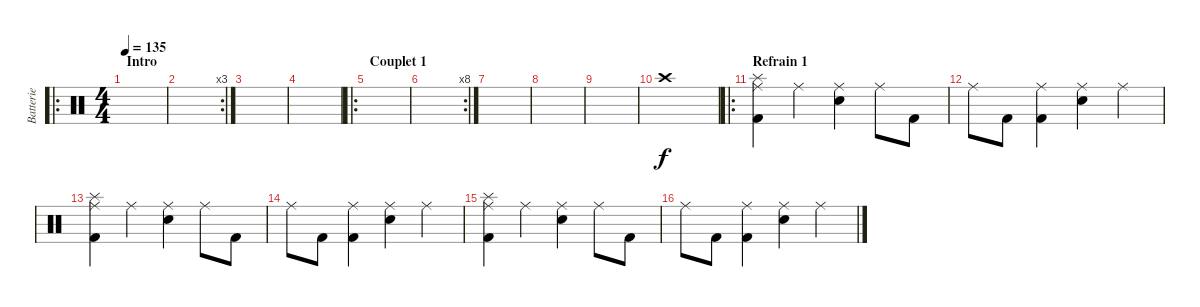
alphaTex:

\track ("Batterie" "Batterie") {instrument percussion}
\staff {score}
\articulation defaults
\ro
\ts (4 4)
\section ("" "Intro")
\tempo 135
\clef neutral
\ks c
|
\rc 3
|
|
|
\ro
\section ("" "Couplet 1")
|
\rc 8
|
|
|
|
"Crash high (hit)".1{volume 16} |
\ro
\section ("" "Refrain 1")
("Splash (hit)" "Ride (middle)" "Kick (hit) 2").4 "Ride (middle)".4 ("Ride (middle)" "Snare (hit) 2").4 "Ride (middle)".8 "Kick (hit) 2".8 |
"Ride (middle)".8 "Kick (hit) 2".8 ("Ride (middle)" "Kick (hit) 2").4 ("Ride (middle)" "Snare (hit) 2").4 "Ride (middle)".4 |
("Splash (hit)" "Ride (middle)" "Kick (hit) 2").4 "Ride (middle)".4 ("Ride (middle)" "Snare (hit) 2").4 "Ride (middle)".8 "Kick (hit) 2".8 |
"Ride (middle)".8 "Kick (hit) 2".8 ("Ride (middle)" "Kick (hit) 2").4 ("Ride (middle)" "Snare (hit) 2").4 "Ride (middle)".4 |
("Splash (hit)" "Ride (middle)" "Kick (hit) 2").4 "Ride (middle)".4 ("Ride (middle)" "Snare (hit) 2").4 "Ride (middle)".8 "Kick (hit) 2".8 |
"Ride (middle)".8 "Kick (hit) 2".8 ("Ride (middle)" "Kick (hit) 2").4 ("Ride (middle)" "Snare (hit) 2").4 "Ride (middle)".4
